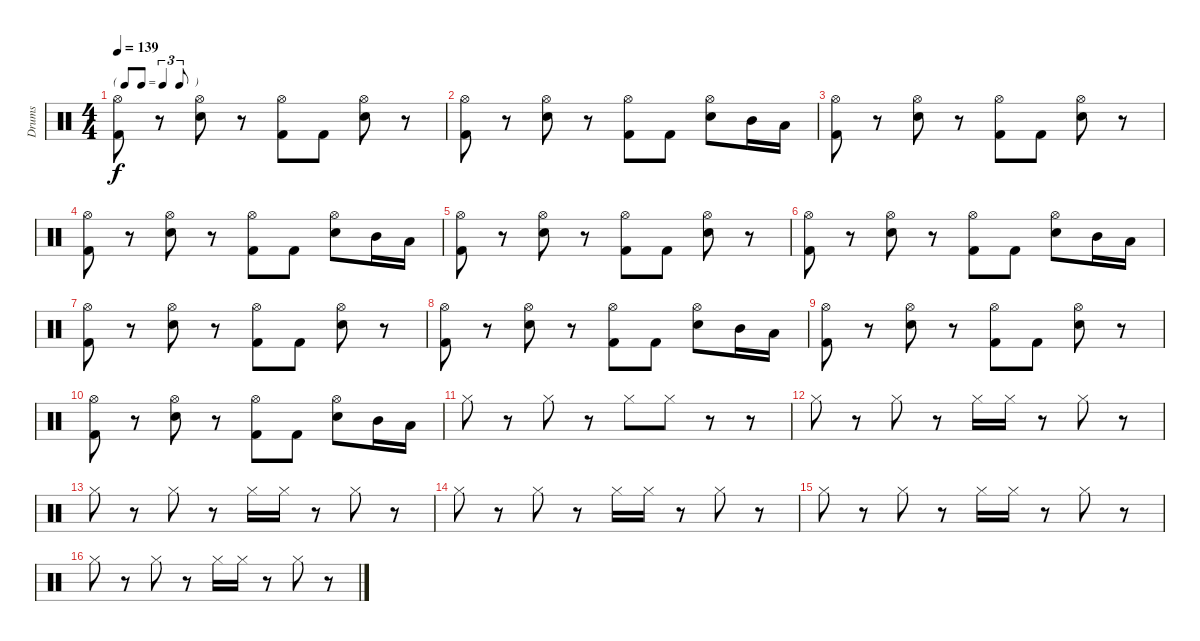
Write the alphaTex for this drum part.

\track ("Drums" "Drums") {instrument percussion}
\staff {score}
\articulation defaults
\ts (4 4)
\tf triplet8th
\tempo 139
\clef neutral
\ks c
("Hi-Hat (open)" "Kick (hit) 2").8{dy f} r.8 ("Hi-Hat (open)" "Snare (hit) 2").8 r.8 ("Hi-Hat (open)" "Kick (hit) 2").8 "Kick (hit) 2".8 ("Hi-Hat (open)" "Snare (hit) 2").8 r.8 |
("Hi-Hat (open)" "Kick (hit) 2").8 r.8 ("Hi-Hat (open)" "Snare (hit) 2").8 r.8 ("Hi-Hat (open)" "Kick (hit) 2").8 "Kick (hit) 2".8 ("Hi-Hat (open)" "Snare (hit) 2").8 "Mid Tom (hit)".16 "Low Tom (hit)".16 |
("Hi-Hat (open)" "Kick (hit) 2").8 r.8 ("Hi-Hat (open)" "Snare (hit) 2").8 r.8 ("Hi-Hat (open)" "Kick (hit) 2").8 "Kick (hit) 2".8 ("Hi-Hat (open)" "Snare (hit) 2").8 r.8 |
("Hi-Hat (open)" "Kick (hit) 2").8 r.8 ("Hi-Hat (open)" "Snare (hit) 2").8 r.8 ("Hi-Hat (open)" "Kick (hit) 2").8 "Kick (hit) 2".8 ("Hi-Hat (open)" "Snare (hit) 2").8 "Mid Tom (hit)".16 "Low Tom (hit)".16 |
("Hi-Hat (open)" "Kick (hit) 2").8 r.8 ("Hi-Hat (open)" "Snare (hit) 2").8 r.8 ("Hi-Hat (open)" "Kick (hit) 2").8 "Kick (hit) 2".8 ("Hi-Hat (open)" "Snare (hit) 2").8 r.8 |
("Hi-Hat (open)" "Kick (hit) 2").8 r.8 ("Hi-Hat (open)" "Snare (hit) 2").8 r.8 ("Hi-Hat (open)" "Kick (hit) 2").8 "Kick (hit) 2".8 ("Hi-Hat (open)" "Snare (hit) 2").8 "Mid Tom (hit)".16 "Low Tom (hit)".16 |
("Hi-Hat (open)" "Kick (hit) 2").8 r.8 ("Hi-Hat (open)" "Snare (hit) 2").8 r.8 ("Hi-Hat (open)" "Kick (hit) 2").8 "Kick (hit) 2".8 ("Hi-Hat (open)" "Snare (hit) 2").8 r.8 |
("Hi-Hat (open)" "Kick (hit) 2").8 r.8 ("Hi-Hat (open)" "Snare (hit) 2").8 r.8 ("Hi-Hat (open)" "Kick (hit) 2").8 "Kick (hit) 2".8 ("Hi-Hat (open)" "Snare (hit) 2").8 "Mid Tom (hit)".16 "Low Tom (hit)".16 |
("Hi-Hat (open)" "Kick (hit) 2").8 r.8 ("Hi-Hat (open)" "Snare (hit) 2").8 r.8 ("Hi-Hat (open)" "Kick (hit) 2").8 "Kick (hit) 2".8 ("Hi-Hat (open)" "Snare (hit) 2").8 r.8 |
("Hi-Hat (open)" "Kick (hit) 2").8 r.8 ("Hi-Hat (open)" "Snare (hit) 2").8 r.8 ("Hi-Hat (open)" "Kick (hit) 2").8 "Kick (hit) 2".8 ("Hi-Hat (open)" "Snare (hit) 2").8 "Mid Tom (hit)".16 "Low Tom (hit)".16 |
"Hi-Hat (closed)".8{volume 16} r.8 "Hi-Hat (closed)".8 r.8 "Hi-Hat (closed)".8 "Hi-Hat (closed)".8 r.8 r.8 |
"Hi-Hat (closed)".8 r.8 "Hi-Hat (closed)".8 r.8 "Hi-Hat (closed)".16 "Hi-Hat (closed)".16 r.8 "Hi-Hat (closed)".8 r.8 |
"Hi-Hat (closed)".8 r.8 "Hi-Hat (closed)".8 r.8 "Hi-Hat (closed)".16 "Hi-Hat (closed)".16 r.8 "Hi-Hat (closed)".8 r.8 |
"Hi-Hat (closed)".8 r.8 "Hi-Hat (closed)".8 r.8 "Hi-Hat (closed)".16 "Hi-Hat (closed)".16 r.8 "Hi-Hat (closed)".8 r.8 |
"Hi-Hat (closed)".8 r.8 "Hi-Hat (closed)".8 r.8 "Hi-Hat (closed)".16 "Hi-Hat (closed)".16 r.8 "Hi-Hat (closed)".8 r.8 |
"Hi-Hat (closed)".8 r.8 "Hi-Hat (closed)".8 r.8 "Hi-Hat (closed)".16 "Hi-Hat (closed)".16 r.8 "Hi-Hat (closed)".8 r.8
